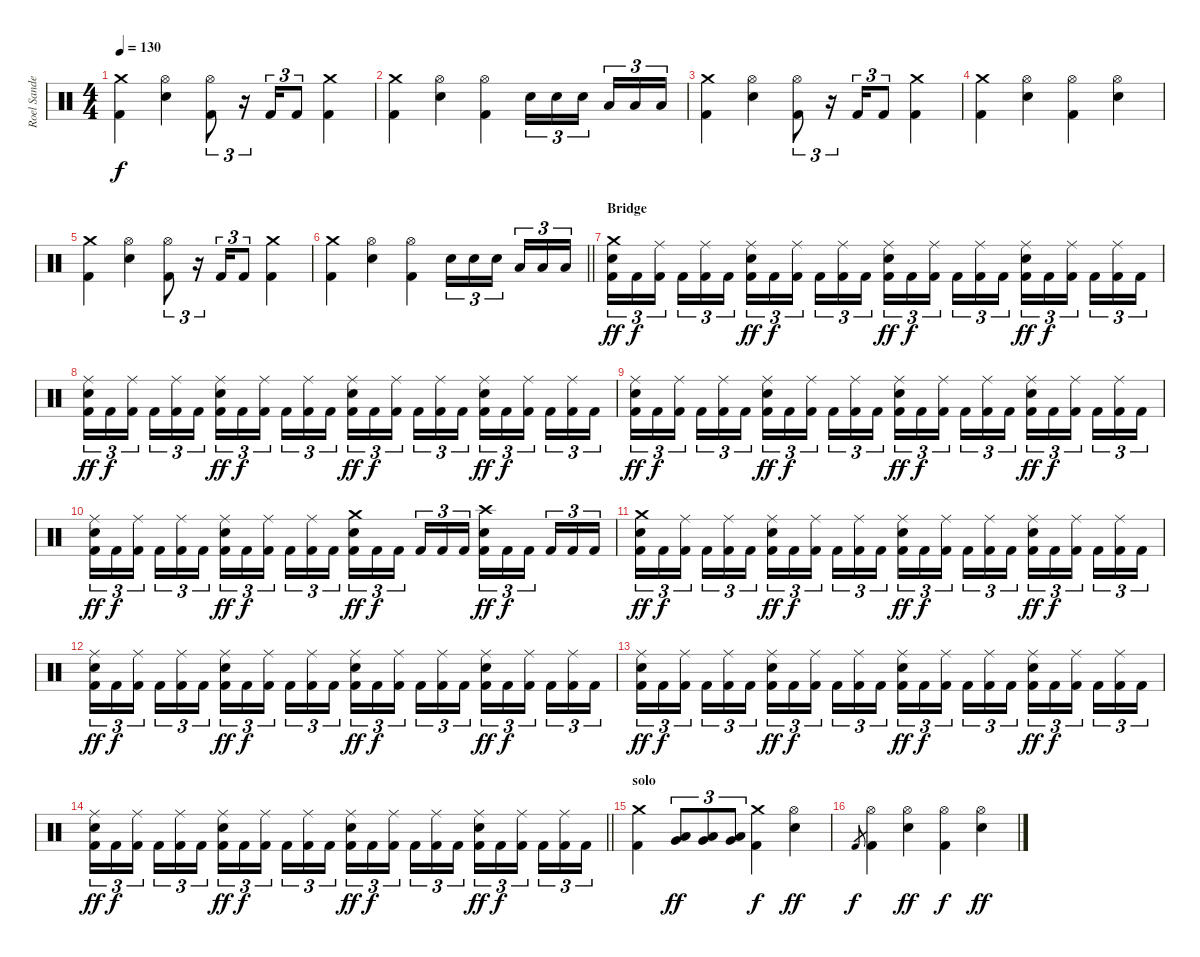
\track ("Roel Sander " "Roel Sande") {instrument percussion}
\staff {score}
\articulation defaults
\ts (4 4)
\tempo 130
\clef neutral
\ks c
("Crash medium (hit)" "Kick (hit) 2").4{dy f} ("Hi-Hat (open)" "Snare (hit) 2").4 ("Hi-Hat (open)" "Kick (hit) 2").8{tu (3 2)} r.16{tu (3 2)} "Kick (hit) 2".16{tu (3 2)} "Kick (hit) 2".8{tu (3 2)} ("Crash medium (hit)" "Kick (hit) 2").4 |
("Crash medium (hit)" "Kick (hit) 2").4 ("Hi-Hat (open)" "Snare (hit) 2").4 ("Hi-Hat (open)" "Kick (hit) 2").4 "Snare (hit) 2".16{tu (3 2)} "Snare (hit) 2".16{tu (3 2)} "Snare (hit) 2".16{tu (3 2) beam splitsecondary} "Low Tom (hit)".16{tu (3 2)} "Low Tom (hit)".16{tu (3 2)} "Low Tom (hit)".16{tu (3 2)} |
("Crash medium (hit)" "Kick (hit) 2").4 ("Hi-Hat (open)" "Snare (hit) 2").4 ("Hi-Hat (open)" "Kick (hit) 2").8{tu (3 2)} r.16{tu (3 2)} "Kick (hit) 2".16{tu (3 2)} "Kick (hit) 2".8{tu (3 2)} ("Crash medium (hit)" "Kick (hit) 2").4 |
("Crash medium (hit)" "Kick (hit) 2").4 ("Hi-Hat (open)" "Snare (hit) 2").4 ("Hi-Hat (open)" "Kick (hit) 2").4 ("Hi-Hat (open)" "Snare (hit) 2").4 |
("Crash medium (hit)" "Kick (hit) 2").4 ("Hi-Hat (open)" "Snare (hit) 2").4 ("Hi-Hat (open)" "Kick (hit) 2").8{tu (3 2)} r.16{tu (3 2)} "Kick (hit) 2".16{tu (3 2)} "Kick (hit) 2".8{tu (3 2)} ("Crash medium (hit)" "Kick (hit) 2").4 |
\barLineRight lightlight
("Crash medium (hit)" "Kick (hit) 2").4 ("Hi-Hat (open)" "Snare (hit) 2").4 ("Hi-Hat (open)" "Kick (hit) 2").4 "Snare (hit) 2".16{tu (3 2)} "Snare (hit) 2".16{tu (3 2)} "Snare (hit) 2".16{tu (3 2) beam splitsecondary} "Low Tom (hit)".16{tu (3 2)} "Low Tom (hit)".16{tu (3 2)} "Low Tom (hit)".16{tu (3 2)} |
\section ("" "Bridge")
("Crash medium (hit)" "Snare (hit) 2" "Kick (hit) 2").16{tu (3 2) dy ff} "Kick (hit) 2".16{tu (3 2) dy f} ("Ride (middle)" "Kick (hit) 2").16{tu (3 2) beam splitsecondary} "Kick (hit) 2".16{tu (3 2)} ("Ride (middle)" "Kick (hit) 2").16{tu (3 2)} "Kick (hit) 2".16{tu (3 2)} ("Ride (middle)" "Snare (hit) 2" "Kick (hit) 2").16{tu (3 2) dy ff} "Kick (hit) 2".16{tu (3 2) dy f} ("Ride (middle)" "Kick (hit) 2").16{tu (3 2) beam splitsecondary} "Kick (hit) 2".16{tu (3 2)} ("Ride (middle)" "Kick (hit) 2").16{tu (3 2)} "Kick (hit) 2".16{tu (3 2)} ("Ride (middle)" "Snare (hit) 2" "Kick (hit) 2").16{tu (3 2) dy ff} "Kick (hit) 2".16{tu (3 2) dy f} ("Ride (middle)" "Kick (hit) 2").16{tu (3 2) beam splitsecondary} "Kick (hit) 2".16{tu (3 2)} ("Ride (middle)" "Kick (hit) 2").16{tu (3 2)} "Kick (hit) 2".16{tu (3 2)} ("Ride (middle)" "Snare (hit) 2" "Kick (hit) 2").16{tu (3 2) dy ff} "Kick (hit) 2".16{tu (3 2) dy f} ("Ride (middle)" "Kick (hit) 2").16{tu (3 2) beam splitsecondary} "Kick (hit) 2".16{tu (3 2)} ("Ride (middle)" "Kick (hit) 2").16{tu (3 2)} "Kick (hit) 2".16{tu (3 2)} |
("Ride (middle)" "Snare (hit) 2" "Kick (hit) 2").16{tu (3 2) dy ff} "Kick (hit) 2".16{tu (3 2) dy f} ("Ride (middle)" "Kick (hit) 2").16{tu (3 2) beam splitsecondary} "Kick (hit) 2".16{tu (3 2)} ("Ride (middle)" "Kick (hit) 2").16{tu (3 2)} "Kick (hit) 2".16{tu (3 2)} ("Ride (middle)" "Snare (hit) 2" "Kick (hit) 2").16{tu (3 2) dy ff} "Kick (hit) 2".16{tu (3 2) dy f} ("Ride (middle)" "Kick (hit) 2").16{tu (3 2) beam splitsecondary} "Kick (hit) 2".16{tu (3 2)} ("Ride (middle)" "Kick (hit) 2").16{tu (3 2)} "Kick (hit) 2".16{tu (3 2)} ("Ride (middle)" "Snare (hit) 2" "Kick (hit) 2").16{tu (3 2) dy ff} "Kick (hit) 2".16{tu (3 2) dy f} ("Ride (middle)" "Kick (hit) 2").16{tu (3 2) beam splitsecondary} "Kick (hit) 2".16{tu (3 2)} ("Ride (middle)" "Kick (hit) 2").16{tu (3 2)} "Kick (hit) 2".16{tu (3 2)} ("Ride (middle)" "Snare (hit) 2" "Kick (hit) 2").16{tu (3 2) dy ff} "Kick (hit) 2".16{tu (3 2) dy f} ("Ride (middle)" "Kick (hit) 2").16{tu (3 2) beam splitsecondary} "Kick (hit) 2".16{tu (3 2)} ("Ride (middle)" "Kick (hit) 2").16{tu (3 2)} "Kick (hit) 2".16{tu (3 2)} |
("Ride (middle)" "Snare (hit) 2" "Kick (hit) 2").16{tu (3 2) dy ff} "Kick (hit) 2".16{tu (3 2) dy f} ("Ride (middle)" "Kick (hit) 2").16{tu (3 2) beam splitsecondary} "Kick (hit) 2".16{tu (3 2)} ("Ride (middle)" "Kick (hit) 2").16{tu (3 2)} "Kick (hit) 2".16{tu (3 2)} ("Ride (middle)" "Snare (hit) 2" "Kick (hit) 2").16{tu (3 2) dy ff} "Kick (hit) 2".16{tu (3 2) dy f} ("Ride (middle)" "Kick (hit) 2").16{tu (3 2) beam splitsecondary} "Kick (hit) 2".16{tu (3 2)} ("Ride (middle)" "Kick (hit) 2").16{tu (3 2)} "Kick (hit) 2".16{tu (3 2)} ("Ride (middle)" "Snare (hit) 2" "Kick (hit) 2").16{tu (3 2) dy ff} "Kick (hit) 2".16{tu (3 2) dy f} ("Ride (middle)" "Kick (hit) 2").16{tu (3 2) beam splitsecondary} "Kick (hit) 2".16{tu (3 2)} ("Ride (middle)" "Kick (hit) 2").16{tu (3 2)} "Kick (hit) 2".16{tu (3 2)} ("Ride (middle)" "Snare (hit) 2" "Kick (hit) 2").16{tu (3 2) dy ff} "Kick (hit) 2".16{tu (3 2) dy f} ("Ride (middle)" "Kick (hit) 2").16{tu (3 2) beam splitsecondary} "Kick (hit) 2".16{tu (3 2)} ("Ride (middle)" "Kick (hit) 2").16{tu (3 2)} "Kick (hit) 2".16{tu (3 2)} |
("Ride (middle)" "Snare (hit) 2" "Kick (hit) 2").16{tu (3 2) dy ff} "Kick (hit) 2".16{tu (3 2) dy f} ("Ride (middle)" "Kick (hit) 2").16{tu (3 2) beam splitsecondary} "Kick (hit) 2".16{tu (3 2)} ("Ride (middle)" "Kick (hit) 2").16{tu (3 2)} "Kick (hit) 2".16{tu (3 2)} ("Ride (middle)" "Snare (hit) 2" "Kick (hit) 2").16{tu (3 2) dy ff} "Kick (hit) 2".16{tu (3 2) dy f} ("Ride (middle)" "Kick (hit) 2").16{tu (3 2) beam splitsecondary} "Kick (hit) 2".16{tu (3 2)} ("Ride (middle)" "Kick (hit) 2").16{tu (3 2)} "Kick (hit) 2".16{tu (3 2)} ("Crash medium (hit)" "Snare (hit) 2" "Kick (hit) 2").16{tu (3 2) dy ff} "Kick (hit) 2".16{tu (3 2) dy f} "Kick (hit) 2".16{tu (3 2) beam splitsecondary} "Kick (hit) 2".16{tu (3 2)} "Kick (hit) 2".16{tu (3 2)} "Kick (hit) 2".16{tu (3 2)} ("Crash high (hit)" "Snare (hit) 2" "Kick (hit) 2").16{tu (3 2) dy ff} "Kick (hit) 2".16{tu (3 2) dy f} "Kick (hit) 2".16{tu (3 2) beam splitsecondary} "Kick (hit) 2".16{tu (3 2)} "Kick (hit) 2".16{tu (3 2)} "Kick (hit) 2".16{tu (3 2)} |
("Crash medium (hit)" "Snare (hit) 2" "Kick (hit) 2").16{tu (3 2) dy ff} "Kick (hit) 2".16{tu (3 2) dy f} ("Ride (middle)" "Kick (hit) 2").16{tu (3 2) beam splitsecondary} "Kick (hit) 2".16{tu (3 2)} ("Ride (middle)" "Kick (hit) 2").16{tu (3 2)} "Kick (hit) 2".16{tu (3 2)} ("Ride (middle)" "Snare (hit) 2" "Kick (hit) 2").16{tu (3 2) dy ff} "Kick (hit) 2".16{tu (3 2) dy f} ("Ride (middle)" "Kick (hit) 2").16{tu (3 2) beam splitsecondary} "Kick (hit) 2".16{tu (3 2)} ("Ride (middle)" "Kick (hit) 2").16{tu (3 2)} "Kick (hit) 2".16{tu (3 2)} ("Ride (middle)" "Snare (hit) 2" "Kick (hit) 2").16{tu (3 2) dy ff} "Kick (hit) 2".16{tu (3 2) dy f} ("Ride (middle)" "Kick (hit) 2").16{tu (3 2) beam splitsecondary} "Kick (hit) 2".16{tu (3 2)} ("Ride (middle)" "Kick (hit) 2").16{tu (3 2)} "Kick (hit) 2".16{tu (3 2)} ("Ride (middle)" "Snare (hit) 2" "Kick (hit) 2").16{tu (3 2) dy ff} "Kick (hit) 2".16{tu (3 2) dy f} ("Ride (middle)" "Kick (hit) 2").16{tu (3 2) beam splitsecondary} "Kick (hit) 2".16{tu (3 2)} ("Ride (middle)" "Kick (hit) 2").16{tu (3 2)} "Kick (hit) 2".16{tu (3 2)} |
("Ride (middle)" "Snare (hit) 2" "Kick (hit) 2").16{tu (3 2) dy ff} "Kick (hit) 2".16{tu (3 2) dy f} ("Ride (middle)" "Kick (hit) 2").16{tu (3 2) beam splitsecondary} "Kick (hit) 2".16{tu (3 2)} ("Ride (middle)" "Kick (hit) 2").16{tu (3 2)} "Kick (hit) 2".16{tu (3 2)} ("Ride (middle)" "Snare (hit) 2" "Kick (hit) 2").16{tu (3 2) dy ff} "Kick (hit) 2".16{tu (3 2) dy f} ("Ride (middle)" "Kick (hit) 2").16{tu (3 2) beam splitsecondary} "Kick (hit) 2".16{tu (3 2)} ("Ride (middle)" "Kick (hit) 2").16{tu (3 2)} "Kick (hit) 2".16{tu (3 2)} ("Ride (middle)" "Snare (hit) 2" "Kick (hit) 2").16{tu (3 2) dy ff} "Kick (hit) 2".16{tu (3 2) dy f} ("Ride (middle)" "Kick (hit) 2").16{tu (3 2) beam splitsecondary} "Kick (hit) 2".16{tu (3 2)} ("Ride (middle)" "Kick (hit) 2").16{tu (3 2)} "Kick (hit) 2".16{tu (3 2)} ("Ride (middle)" "Snare (hit) 2" "Kick (hit) 2").16{tu (3 2) dy ff} "Kick (hit) 2".16{tu (3 2) dy f} ("Ride (middle)" "Kick (hit) 2").16{tu (3 2) beam splitsecondary} "Kick (hit) 2".16{tu (3 2)} ("Ride (middle)" "Kick (hit) 2").16{tu (3 2)} "Kick (hit) 2".16{tu (3 2)} |
("Ride (middle)" "Snare (hit) 2" "Kick (hit) 2").16{tu (3 2) dy ff} "Kick (hit) 2".16{tu (3 2) dy f} ("Ride (middle)" "Kick (hit) 2").16{tu (3 2) beam splitsecondary} "Kick (hit) 2".16{tu (3 2)} ("Ride (middle)" "Kick (hit) 2").16{tu (3 2)} "Kick (hit) 2".16{tu (3 2)} ("Ride (middle)" "Snare (hit) 2" "Kick (hit) 2").16{tu (3 2) dy ff} "Kick (hit) 2".16{tu (3 2) dy f} ("Ride (middle)" "Kick (hit) 2").16{tu (3 2) beam splitsecondary} "Kick (hit) 2".16{tu (3 2)} ("Ride (middle)" "Kick (hit) 2").16{tu (3 2)} "Kick (hit) 2".16{tu (3 2)} ("Ride (middle)" "Snare (hit) 2" "Kick (hit) 2").16{tu (3 2) dy ff} "Kick (hit) 2".16{tu (3 2) dy f} ("Ride (middle)" "Kick (hit) 2").16{tu (3 2) beam splitsecondary} "Kick (hit) 2".16{tu (3 2)} ("Ride (middle)" "Kick (hit) 2").16{tu (3 2)} "Kick (hit) 2".16{tu (3 2)} ("Ride (middle)" "Snare (hit) 2" "Kick (hit) 2").16{tu (3 2) dy ff} "Kick (hit) 2".16{tu (3 2) dy f} ("Ride (middle)" "Kick (hit) 2").16{tu (3 2) beam splitsecondary} "Kick (hit) 2".16{tu (3 2)} ("Ride (middle)" "Kick (hit) 2").16{tu (3 2)} "Kick (hit) 2".16{tu (3 2)} |
\barLineRight lightlight
("Ride (middle)" "Snare (hit) 2" "Kick (hit) 2").16{tu (3 2) dy ff} "Kick (hit) 2".16{tu (3 2) dy f} ("Ride (middle)" "Kick (hit) 2").16{tu (3 2) beam splitsecondary} "Kick (hit) 2".16{tu (3 2)} ("Ride (middle)" "Kick (hit) 2").16{tu (3 2)} "Kick (hit) 2".16{tu (3 2)} ("Ride (middle)" "Snare (hit) 2" "Kick (hit) 2").16{tu (3 2) dy ff} "Kick (hit) 2".16{tu (3 2) dy f} ("Ride (middle)" "Kick (hit) 2").16{tu (3 2) beam splitsecondary} "Kick (hit) 2".16{tu (3 2)} ("Ride (middle)" "Kick (hit) 2").16{tu (3 2)} "Kick (hit) 2".16{tu (3 2)} ("Ride (middle)" "Snare (hit) 2" "Kick (hit) 2").16{tu (3 2) dy ff} "Kick (hit) 2".16{tu (3 2) dy f} ("Ride (middle)" "Kick (hit) 2").16{tu (3 2) beam splitsecondary} "Kick (hit) 2".16{tu (3 2)} ("Ride (middle)" "Kick (hit) 2").16{tu (3 2)} "Kick (hit) 2".16{tu (3 2)} ("Ride (middle)" "Snare (hit) 2" "Kick (hit) 2").16{tu (3 2) dy ff} "Kick (hit) 2".16{tu (3 2) dy f} ("Ride (middle)" "Kick (hit) 2").16{tu (3 2) beam splitsecondary} "Kick (hit) 2".16{tu (3 2)} ("Ride (middle)" "Kick (hit) 2").16{tu (3 2)} "Kick (hit) 2".16{tu (3 2)} |
\section ("" "solo")
("Crash medium (hit)" "Kick (hit) 2").4 ("Low Tom (hit)" "Very Low Tom (hit)").8{tu (3 2) dy ff} ("Low Tom (hit)" "Very Low Tom (hit)").8{tu (3 2)} ("Low Tom (hit)" "Very Low Tom (hit)").8{tu (3 2)} ("Crash medium (hit)" "Kick (hit) 2").4{dy f} ("Hi-Hat (open)" "Snare (hit) 2").4{dy ff} |
"Kick (hit) 2".8{gr dy f} ("Hi-Hat (open)" "Kick (hit) 2").4 ("Hi-Hat (open)" "Snare (hit) 2").4{dy ff} ("Hi-Hat (open)" "Kick (hit) 2").4{dy f} ("Hi-Hat (open)" "Snare (hit) 2").4{dy ff}
